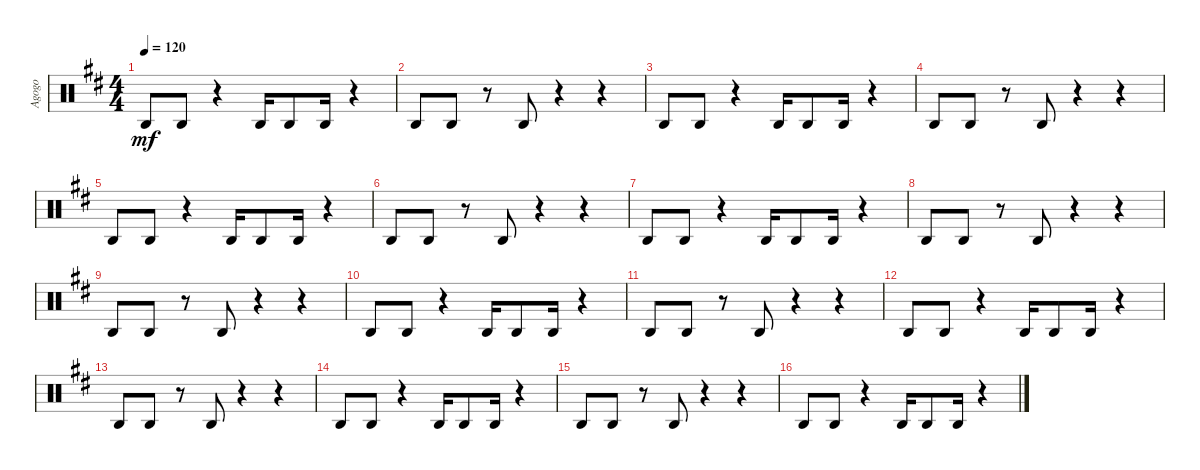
\track ("Agogo" "Agogo") {instrument percussion}
\staff {score}
\articulation defaults
\ts (4 4)
\tempo 120
\clef neutral
\ks d "Agogo high (hit)".8{dy mf} "Agogo high (hit)".8
r.4 "Agogo high (hit)".16 "Agogo high (hit)".8 "Agogo high (hit)".16 r.4 |
"Agogo high (hit)".8 "Agogo high (hit)".8 r.8 "Agogo high (hit)".8 r.4 r.4 |
"Agogo high (hit)".8 "Agogo high (hit)".8 r.4 "Agogo high (hit)".16 "Agogo high (hit)".8 "Agogo high (hit)".16 r.4 |
"Agogo high (hit)".8 "Agogo high (hit)".8 r.8 "Agogo high (hit)".8 r.4 r.4 |
"Agogo high (hit)".8 "Agogo high (hit)".8 r.4 "Agogo high (hit)".16 "Agogo high (hit)".8 "Agogo high (hit)".16 r.4 |
"Agogo high (hit)".8 "Agogo high (hit)".8 r.8 "Agogo high (hit)".8 r.4 r.4 |
"Agogo high (hit)".8 "Agogo high (hit)".8 r.4 "Agogo high (hit)".16 "Agogo high (hit)".8 "Agogo high (hit)".16 r.4 |
"Agogo high (hit)".8 "Agogo high (hit)".8 r.8 "Agogo high (hit)".8 r.4 r.4 |
"Agogo high (hit)".8 "Agogo high (hit)".8 r.8 "Agogo high (hit)".8 r.4 r.4 |
"Agogo high (hit)".8 "Agogo high (hit)".8 r.4 "Agogo high (hit)".16 "Agogo high (hit)".8 "Agogo high (hit)".16 r.4 |
"Agogo high (hit)".8 "Agogo high (hit)".8 r.8 "Agogo high (hit)".8 r.4 r.4 |
"Agogo high (hit)".8 "Agogo high (hit)".8 r.4 "Agogo high (hit)".16 "Agogo high (hit)".8 "Agogo high (hit)".16 r.4 |
"Agogo high (hit)".8 "Agogo high (hit)".8 r.8 "Agogo high (hit)".8 r.4 r.4 |
"Agogo high (hit)".8 "Agogo high (hit)".8 r.4 "Agogo high (hit)".16 "Agogo high (hit)".8 "Agogo high (hit)".16 r.4 |
"Agogo high (hit)".8 "Agogo high (hit)".8 r.8 "Agogo high (hit)".8 r.4 r.4 |
"Agogo high (hit)".8 "Agogo high (hit)".8 r.4 "Agogo high (hit)".16 "Agogo high (hit)".8 "Agogo high (hit)".16 r.4
